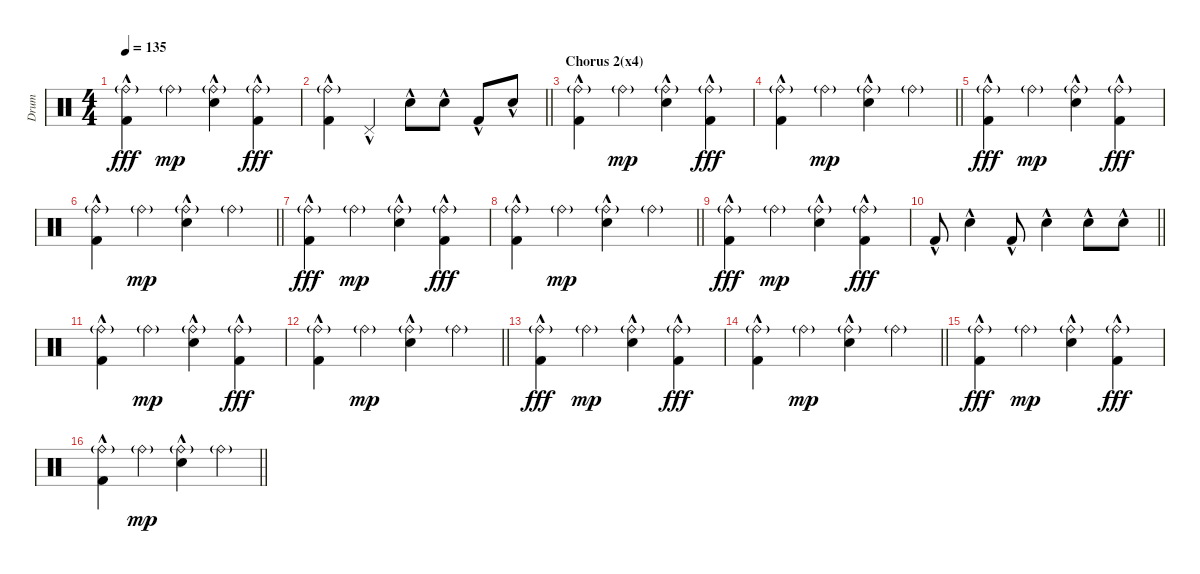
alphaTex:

\track ("Drum" "Drum") {instrument percussion}
\staff {score}
\articulation defaults
\ts (4 4)
\tempo 135
\clef neutral
\ks c
("Ride (bell)"{g} "Kick (hit) 2"{hac}).4{dy fff} "Ride (bell)"{g}.4{dy mp} ("Electric Snare (hit)"{hac} "Ride (bell)"{g}).4 ("Ride (bell)"{g} "Kick (hit) 2"{hac}).4{dy fff} |
\barLineRight lightlight
("Ride (bell)"{g} "Kick (hit) 2"{hac}).4 "Pedal Hi-Hat (hit)"{hac}.4 "Electric Snare (hit)"{hac}.8 "Electric Snare (hit)"{hac}.8 "Kick (hit) 2"{hac}.8 "Electric Snare (hit)"{hac}.8 |
\section ("" "Chorus 2(x4)")
("Ride (bell)"{g} "Kick (hit) 2"{hac}).4 "Ride (bell)"{g}.4{dy mp} ("Electric Snare (hit)"{hac} "Ride (bell)"{g}).4 ("Ride (bell)"{g} "Kick (hit) 2"{hac}).4{dy fff} |
\barLineRight lightlight
("Ride (bell)"{g} "Kick (hit) 2"{hac}).4 "Ride (bell)"{g}.4{dy mp} ("Electric Snare (hit)"{hac} "Ride (bell)"{g}).4 "Ride (bell)"{g}.4 |
("Ride (bell)"{g} "Kick (hit) 2"{hac}).4{dy fff} "Ride (bell)"{g}.4{dy mp} ("Electric Snare (hit)"{hac} "Ride (bell)"{g}).4 ("Ride (bell)"{g} "Kick (hit) 2"{hac}).4{dy fff} |
\barLineRight lightlight
("Ride (bell)"{g} "Kick (hit) 2"{hac}).4 "Ride (bell)"{g}.4{dy mp} ("Electric Snare (hit)"{hac} "Ride (bell)"{g}).4 "Ride (bell)"{g}.4 |
("Ride (bell)"{g} "Kick (hit) 2"{hac}).4{dy fff} "Ride (bell)"{g}.4{dy mp} ("Electric Snare (hit)"{hac} "Ride (bell)"{g}).4 ("Ride (bell)"{g} "Kick (hit) 2"{hac}).4{dy fff} |
\barLineRight lightlight
("Ride (bell)"{g} "Kick (hit) 2"{hac}).4 "Ride (bell)"{g}.4{dy mp} ("Electric Snare (hit)"{hac} "Ride (bell)"{g}).4 "Ride (bell)"{g}.4 |
("Ride (bell)"{g} "Kick (hit) 2"{hac}).4{dy fff} "Ride (bell)"{g}.4{dy mp} ("Electric Snare (hit)"{hac} "Ride (bell)"{g}).4 ("Ride (bell)"{g} "Kick (hit) 2"{hac}).4{dy fff} |
\barLineRight lightlight "Kick (hit) 2"{hac}.8 "Electric Snare (hit)"{hac}.4 "Kick (hit) 2"{hac}.8 "Electric Snare (hit)"{hac}.4 "Electric Snare (hit)"{hac}.8 "Electric Snare (hit)"{hac}.8
|
("Ride (bell)"{g} "Kick (hit) 2"{hac}).4 "Ride (bell)"{g}.4{dy mp} ("Electric Snare (hit)"{hac} "Ride (bell)"{g}).4 ("Ride (bell)"{g} "Kick (hit) 2"{hac}).4{dy fff} |
\barLineRight lightlight
("Ride (bell)"{g} "Kick (hit) 2"{hac}).4 "Ride (bell)"{g}.4{dy mp} ("Electric Snare (hit)"{hac} "Ride (bell)"{g}).4 "Ride (bell)"{g}.4 |
("Ride (bell)"{g} "Kick (hit) 2"{hac}).4{dy fff} "Ride (bell)"{g}.4{dy mp} ("Electric Snare (hit)"{hac} "Ride (bell)"{g}).4 ("Ride (bell)"{g} "Kick (hit) 2"{hac}).4{dy fff} |
\barLineRight lightlight
("Ride (bell)"{g} "Kick (hit) 2"{hac}).4 "Ride (bell)"{g}.4{dy mp} ("Electric Snare (hit)"{hac} "Ride (bell)"{g}).4 "Ride (bell)"{g}.4 |
("Ride (bell)"{g} "Kick (hit) 2"{hac}).4{dy fff} "Ride (bell)"{g}.4{dy mp} ("Electric Snare (hit)"{hac} "Ride (bell)"{g}).4 ("Ride (bell)"{g} "Kick (hit) 2"{hac}).4{dy fff} |
\barLineRight lightlight
("Ride (bell)"{g} "Kick (hit) 2"{hac}).4 "Ride (bell)"{g}.4{dy mp} ("Electric Snare (hit)"{hac} "Ride (bell)"{g}).4 "Ride (bell)"{g}.4
